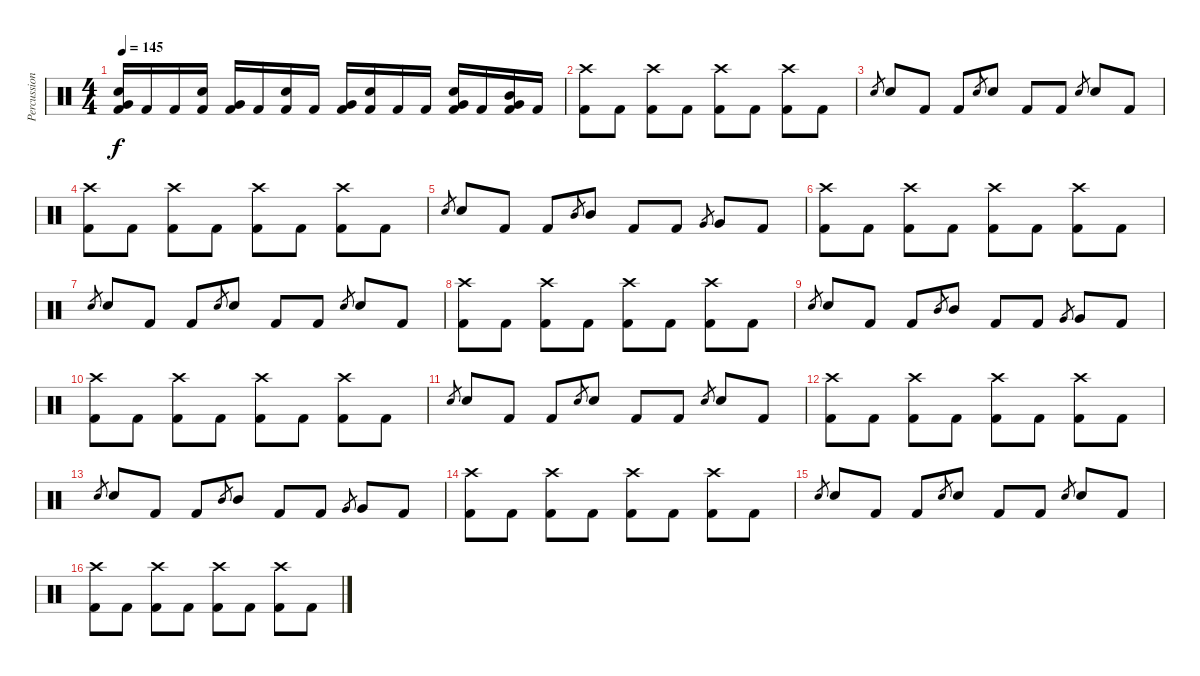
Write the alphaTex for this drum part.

\track ("Percussion" "Percussion") {instrument percussion}
\staff {score}
\articulation defaults
\ts (4 4)
\tempo 145
\clef neutral
\ks c
("Snare (hit) 2" "Very Low Tom (hit)" "Kick (hit) 2").16{dy f} "Kick (hit) 2".16 "Kick (hit) 2".16 ("Snare (hit) 2" "Kick (hit) 2").16 ("Very Low Tom (hit)" "Kick (hit) 2").16 "Kick (hit) 2".16 ("Snare (hit) 2" "Kick (hit) 2").16 "Kick (hit) 2".16 ("Very Low Tom (hit)" "Kick (hit) 2").16 ("Snare (hit) 2" "Kick (hit) 2").16 "Kick (hit) 2".16 "Kick (hit) 2".16 ("Snare (hit) 2" "Very Low Tom (hit)" "Kick (hit) 2").16 "Kick (hit) 2".16 ("Mid Tom (hit)" "Very Low Tom (hit)" "Kick (hit) 2").16 "Kick (hit) 2".16 |
\section ("" "")
("Crash high (hit)" "Kick (hit) 2").8 "Kick (hit) 2".8 ("Crash high (hit)" "Kick (hit) 2").8 "Kick (hit) 2".8 ("Crash high (hit)" "Kick (hit) 2").8 "Kick (hit) 2".8 ("Crash high (hit)" "Kick (hit) 2").8 "Kick (hit) 2".8 |
"Snare (hit) 2".8{gr} "Snare (hit) 2".8 "Kick (hit) 2".8 "Kick (hit) 2".8 "Snare (hit) 2".8{gr} "Snare (hit) 2".8 "Kick (hit) 2".8 "Kick (hit) 2".8 "Snare (hit) 2".8{gr} "Snare (hit) 2".8 "Kick (hit) 2".8 |
("Crash high (hit)" "Kick (hit) 2").8 "Kick (hit) 2".8 ("Crash high (hit)" "Kick (hit) 2").8 "Kick (hit) 2".8 ("Crash high (hit)" "Kick (hit) 2").8 "Kick (hit) 2".8 ("Crash high (hit)" "Kick (hit) 2").8 "Kick (hit) 2".8 |
"Snare (hit) 2".8{gr} "Snare (hit) 2".8 "Kick (hit) 2".8 "Kick (hit) 2".8 "Mid Tom (hit)".8{gr} "Mid Tom (hit)".8 "Kick (hit) 2".8 "Kick (hit) 2".8 "Very Low Tom (hit)".8{gr} "Very Low Tom (hit)".8 "Kick (hit) 2".8 |
("Crash high (hit)" "Kick (hit) 2").8 "Kick (hit) 2".8 ("Crash high (hit)" "Kick (hit) 2").8 "Kick (hit) 2".8 ("Crash high (hit)" "Kick (hit) 2").8 "Kick (hit) 2".8 ("Crash high (hit)" "Kick (hit) 2").8 "Kick (hit) 2".8 |
"Snare (hit) 2".8{gr} "Snare (hit) 2".8 "Kick (hit) 2".8 "Kick (hit) 2".8 "Snare (hit) 2".8{gr} "Snare (hit) 2".8 "Kick (hit) 2".8 "Kick (hit) 2".8 "Snare (hit) 2".8{gr} "Snare (hit) 2".8 "Kick (hit) 2".8 |
("Crash high (hit)" "Kick (hit) 2").8 "Kick (hit) 2".8 ("Crash high (hit)" "Kick (hit) 2").8 "Kick (hit) 2".8 ("Crash high (hit)" "Kick (hit) 2").8 "Kick (hit) 2".8 ("Crash high (hit)" "Kick (hit) 2").8 "Kick (hit) 2".8 |
"Snare (hit) 2".8{gr} "Snare (hit) 2".8 "Kick (hit) 2".8 "Kick (hit) 2".8 "Mid Tom (hit)".8{gr} "Mid Tom (hit)".8 "Kick (hit) 2".8 "Kick (hit) 2".8 "Very Low Tom (hit)".8{gr} "Very Low Tom (hit)".8 "Kick (hit) 2".8 |
("Crash high (hit)" "Kick (hit) 2").8 "Kick (hit) 2".8 ("Crash high (hit)" "Kick (hit) 2").8 "Kick (hit) 2".8 ("Crash high (hit)" "Kick (hit) 2").8 "Kick (hit) 2".8 ("Crash high (hit)" "Kick (hit) 2").8 "Kick (hit) 2".8 |
"Snare (hit) 2".8{gr} "Snare (hit) 2".8 "Kick (hit) 2".8 "Kick (hit) 2".8 "Snare (hit) 2".8{gr} "Snare (hit) 2".8 "Kick (hit) 2".8 "Kick (hit) 2".8 "Snare (hit) 2".8{gr} "Snare (hit) 2".8 "Kick (hit) 2".8 |
("Crash high (hit)" "Kick (hit) 2").8 "Kick (hit) 2".8 ("Crash high (hit)" "Kick (hit) 2").8 "Kick (hit) 2".8 ("Crash high (hit)" "Kick (hit) 2").8 "Kick (hit) 2".8 ("Crash high (hit)" "Kick (hit) 2").8 "Kick (hit) 2".8 |
"Snare (hit) 2".8{gr} "Snare (hit) 2".8 "Kick (hit) 2".8 "Kick (hit) 2".8 "Mid Tom (hit)".8{gr} "Mid Tom (hit)".8 "Kick (hit) 2".8 "Kick (hit) 2".8 "Very Low Tom (hit)".8{gr} "Very Low Tom (hit)".8 "Kick (hit) 2".8 |
("Crash high (hit)" "Kick (hit) 2").8 "Kick (hit) 2".8 ("Crash high (hit)" "Kick (hit) 2").8 "Kick (hit) 2".8 ("Crash high (hit)" "Kick (hit) 2").8 "Kick (hit) 2".8 ("Crash high (hit)" "Kick (hit) 2").8 "Kick (hit) 2".8 |
"Snare (hit) 2".8{gr} "Snare (hit) 2".8 "Kick (hit) 2".8 "Kick (hit) 2".8 "Snare (hit) 2".8{gr} "Snare (hit) 2".8 "Kick (hit) 2".8 "Kick (hit) 2".8 "Snare (hit) 2".8{gr} "Snare (hit) 2".8 "Kick (hit) 2".8 |
("Crash high (hit)" "Kick (hit) 2").8 "Kick (hit) 2".8 ("Crash high (hit)" "Kick (hit) 2").8 "Kick (hit) 2".8 ("Crash high (hit)" "Kick (hit) 2").8 "Kick (hit) 2".8 ("Crash high (hit)" "Kick (hit) 2").8 "Kick (hit) 2".8
